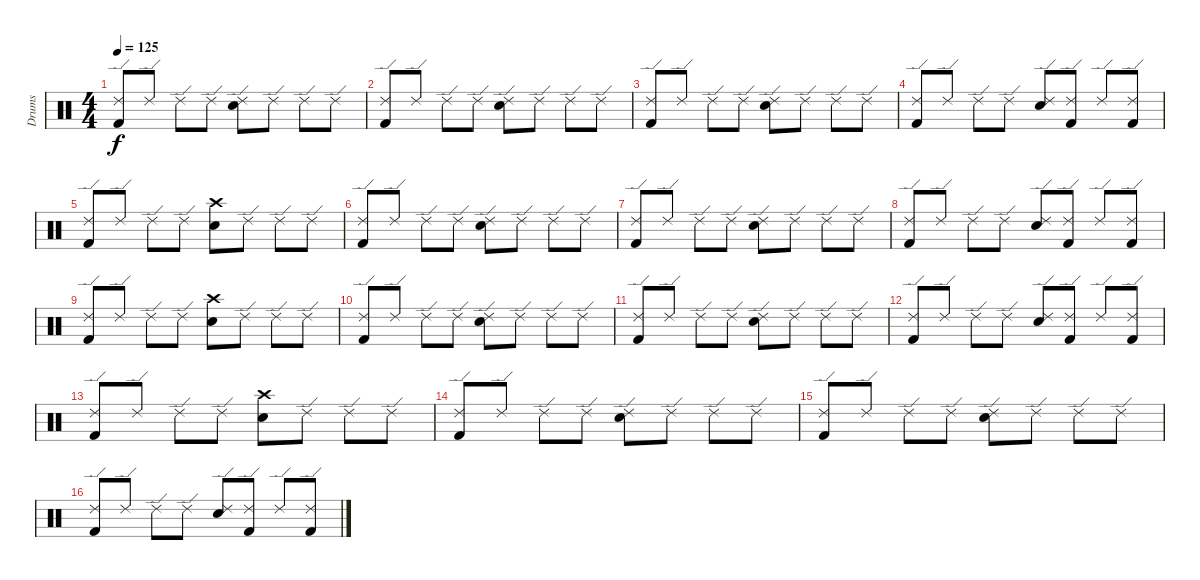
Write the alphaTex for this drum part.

\track ("Drums" "Drums") {instrument percussion}
\staff {score}
\articulation defaults
\ts (4 4)
\tempo 125
\clef neutral
\ks c
("Ride (edge) 2" "Kick (hit) 2").8{dy f} "Ride (edge) 2".8 "Ride (edge) 2".8 "Ride (edge) 2".8 ("Ride (edge) 2" "Electric Snare (hit)").8 "Ride (edge) 2".8 "Ride (edge) 2".8 "Ride (edge) 2".8 |
("Ride (edge) 2" "Kick (hit) 2").8 "Ride (edge) 2".8 "Ride (edge) 2".8 "Ride (edge) 2".8 ("Ride (edge) 2" "Electric Snare (hit)").8 "Ride (edge) 2".8 "Ride (edge) 2".8 "Ride (edge) 2".8 |
("Ride (edge) 2" "Kick (hit) 2").8 "Ride (edge) 2".8 "Ride (edge) 2".8 "Ride (edge) 2".8 ("Ride (edge) 2" "Electric Snare (hit)").8 "Ride (edge) 2".8 "Ride (edge) 2".8 "Ride (edge) 2".8 |
("Ride (edge) 2" "Kick (hit) 2").8 "Ride (edge) 2".8 "Ride (edge) 2".8 "Ride (edge) 2".8 ("Ride (edge) 2" "Electric Snare (hit)").8 ("Ride (edge) 2" "Kick (hit) 2").8 "Ride (edge) 2".8 ("Ride (edge) 2" "Kick (hit) 2").8 |
("Ride (edge) 2" "Kick (hit) 2").8 "Ride (edge) 2".8 "Ride (edge) 2".8 "Ride (edge) 2".8 ("Crash high (hit)" "Electric Snare (hit)").8 "Ride (edge) 2".8 "Ride (edge) 2".8 "Ride (edge) 2".8 |
("Ride (edge) 2" "Kick (hit) 2").8 "Ride (edge) 2".8 "Ride (edge) 2".8 "Ride (edge) 2".8 ("Ride (edge) 2" "Electric Snare (hit)").8 "Ride (edge) 2".8 "Ride (edge) 2".8 "Ride (edge) 2".8 |
("Ride (edge) 2" "Kick (hit) 2").8 "Ride (edge) 2".8 "Ride (edge) 2".8 "Ride (edge) 2".8 ("Ride (edge) 2" "Electric Snare (hit)").8 "Ride (edge) 2".8 "Ride (edge) 2".8 "Ride (edge) 2".8 |
("Ride (edge) 2" "Kick (hit) 2").8 "Ride (edge) 2".8 "Ride (edge) 2".8 "Ride (edge) 2".8 ("Ride (edge) 2" "Electric Snare (hit)").8 ("Ride (edge) 2" "Kick (hit) 2").8 "Ride (edge) 2".8 ("Ride (edge) 2" "Kick (hit) 2").8 |
("Ride (edge) 2" "Kick (hit) 2").8 "Ride (edge) 2".8 "Ride (edge) 2".8 "Ride (edge) 2".8 ("Crash high (hit)" "Electric Snare (hit)").8 "Ride (edge) 2".8 "Ride (edge) 2".8 "Ride (edge) 2".8 |
("Ride (edge) 2" "Kick (hit) 2").8 "Ride (edge) 2".8 "Ride (edge) 2".8 "Ride (edge) 2".8 ("Ride (edge) 2" "Electric Snare (hit)").8 "Ride (edge) 2".8 "Ride (edge) 2".8 "Ride (edge) 2".8 |
("Ride (edge) 2" "Kick (hit) 2").8 "Ride (edge) 2".8 "Ride (edge) 2".8 "Ride (edge) 2".8 ("Ride (edge) 2" "Electric Snare (hit)").8 "Ride (edge) 2".8 "Ride (edge) 2".8 "Ride (edge) 2".8 |
("Ride (edge) 2" "Kick (hit) 2").8 "Ride (edge) 2".8 "Ride (edge) 2".8 "Ride (edge) 2".8 ("Ride (edge) 2" "Electric Snare (hit)").8 ("Ride (edge) 2" "Kick (hit) 2").8 "Ride (edge) 2".8 ("Ride (edge) 2" "Kick (hit) 2").8 |
("Ride (edge) 2" "Kick (hit) 2").8 "Ride (edge) 2".8 "Ride (edge) 2".8 "Ride (edge) 2".8 ("Crash high (hit)" "Electric Snare (hit)").8 "Ride (edge) 2".8 "Ride (edge) 2".8 "Ride (edge) 2".8 |
("Ride (edge) 2" "Kick (hit) 2").8 "Ride (edge) 2".8 "Ride (edge) 2".8 "Ride (edge) 2".8 ("Ride (edge) 2" "Electric Snare (hit)").8 "Ride (edge) 2".8 "Ride (edge) 2".8 "Ride (edge) 2".8 |
("Ride (edge) 2" "Kick (hit) 2").8 "Ride (edge) 2".8 "Ride (edge) 2".8 "Ride (edge) 2".8 ("Ride (edge) 2" "Electric Snare (hit)").8 "Ride (edge) 2".8 "Ride (edge) 2".8 "Ride (edge) 2".8 |
("Ride (edge) 2" "Kick (hit) 2").8 "Ride (edge) 2".8 "Ride (edge) 2".8 "Ride (edge) 2".8 ("Ride (edge) 2" "Electric Snare (hit)").8 ("Ride (edge) 2" "Kick (hit) 2").8 "Ride (edge) 2".8 ("Ride (edge) 2" "Kick (hit) 2").8
